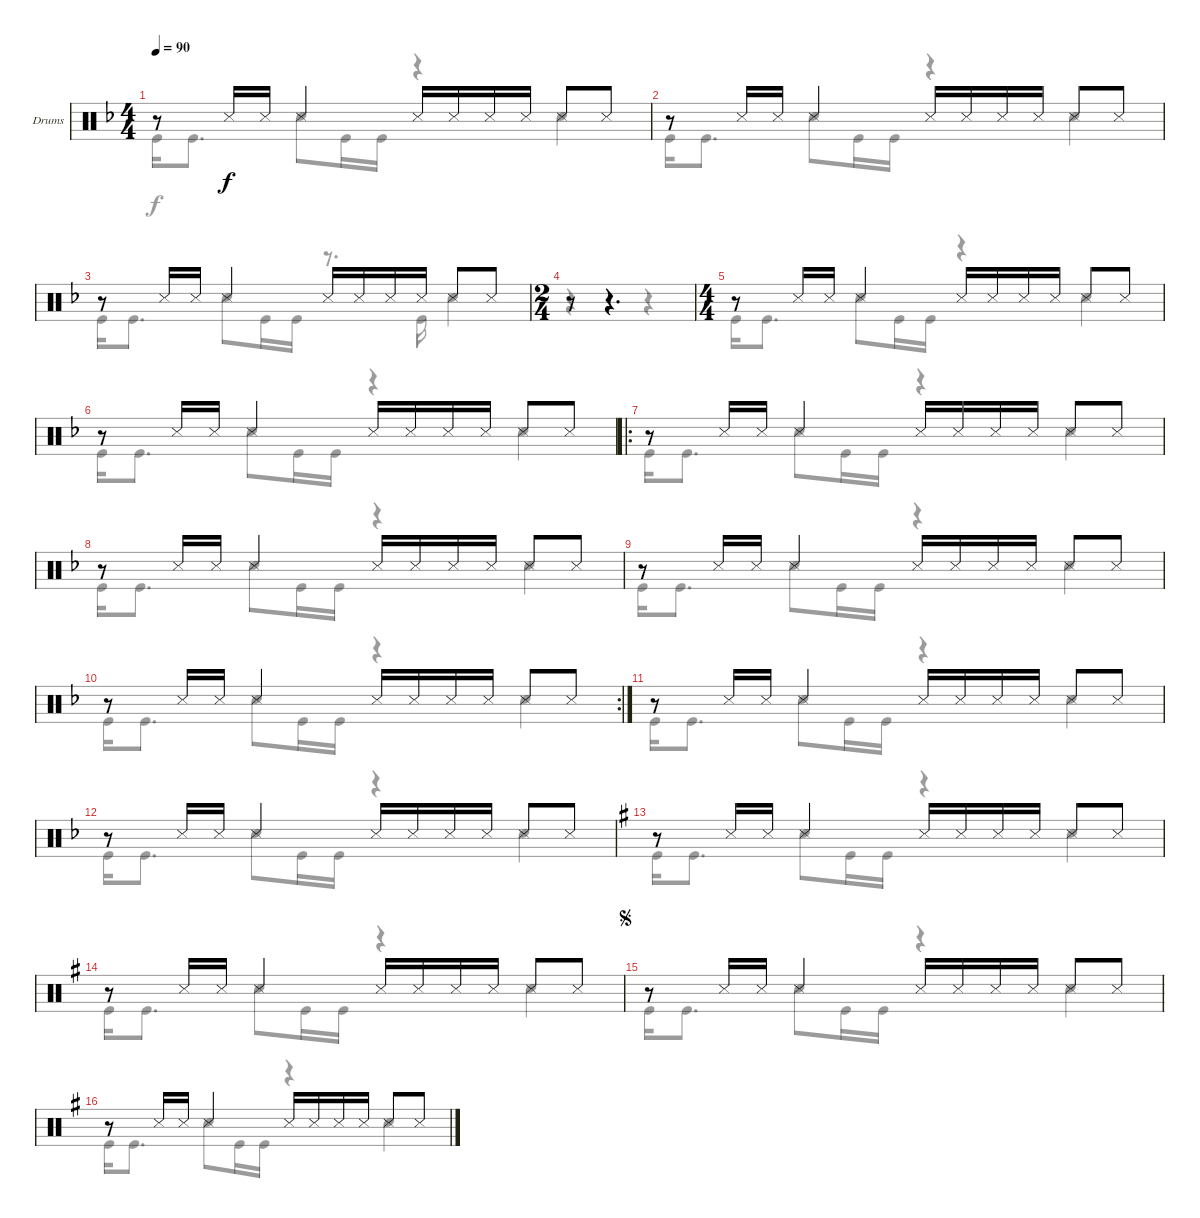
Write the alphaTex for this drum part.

\bracketExtendMode groupsimilarinstruments
\firstSystemTrackNameOrientation horizontal
\otherSystemsTrackNameOrientation horizontal
\track ("Drumkit" "Drums") {instrument percussion}
\staff {score}
\articulation defaults
\voice
\ts (4 4)
\tempo 90
\clef neutral
\ks f
r.8{dy f} "Snare (side stick) 3".16 "Snare (side stick) 3".16 "Snare (side stick) 3".4 "Snare (side stick) 3".16 "Snare (side stick) 3".16 "Snare (side stick) 3".16 "Snare (side stick) 3".16 "Snare (side stick) 3".8 "Snare (side stick) 3".8 |
r.8 "Snare (side stick) 3".16 "Snare (side stick) 3".16 "Snare (side stick) 3".4 "Snare (side stick) 3".16 "Snare (side stick) 3".16 "Snare (side stick) 3".16 "Snare (side stick) 3".16 "Snare (side stick) 3".8 "Snare (side stick) 3".8 |
r.8 "Snare (side stick) 3".16 "Snare (side stick) 3".16 "Snare (side stick) 3".4 "Snare (side stick) 3".16 "Snare (side stick) 3".16 "Snare (side stick) 3".16 "Snare (side stick) 3".16 "Snare (side stick) 3".8 "Snare (side stick) 3".8 |
\ts (2 4)
r.8 r.4{d} |
\ts (4 4)
r.8 "Snare (side stick) 3".16 "Snare (side stick) 3".16 "Snare (side stick) 3".4 "Snare (side stick) 3".16 "Snare (side stick) 3".16 "Snare (side stick) 3".16 "Snare (side stick) 3".16 "Snare (side stick) 3".8 "Snare (side stick) 3".8 |
r.8 "Snare (side stick) 3".16 "Snare (side stick) 3".16 "Snare (side stick) 3".4 "Snare (side stick) 3".16 "Snare (side stick) 3".16 "Snare (side stick) 3".16 "Snare (side stick) 3".16 "Snare (side stick) 3".8 "Snare (side stick) 3".8 |
\ro
r.8 "Snare (side stick) 3".16 "Snare (side stick) 3".16 "Snare (side stick) 3".4 "Snare (side stick) 3".16 "Snare (side stick) 3".16 "Snare (side stick) 3".16 "Snare (side stick) 3".16 "Snare (side stick) 3".8 "Snare (side stick) 3".8 |
r.8 "Snare (side stick) 3".16 "Snare (side stick) 3".16 "Snare (side stick) 3".4 "Snare (side stick) 3".16 "Snare (side stick) 3".16 "Snare (side stick) 3".16 "Snare (side stick) 3".16 "Snare (side stick) 3".8 "Snare (side stick) 3".8 |
r.8 "Snare (side stick) 3".16 "Snare (side stick) 3".16 "Snare (side stick) 3".4 "Snare (side stick) 3".16 "Snare (side stick) 3".16 "Snare (side stick) 3".16 "Snare (side stick) 3".16 "Snare (side stick) 3".8 "Snare (side stick) 3".8 |
\rc 2
r.8 "Snare (side stick) 3".16 "Snare (side stick) 3".16 "Snare (side stick) 3".4 "Snare (side stick) 3".16 "Snare (side stick) 3".16 "Snare (side stick) 3".16 "Snare (side stick) 3".16 "Snare (side stick) 3".8 "Snare (side stick) 3".8 |
r.8 "Snare (side stick) 3".16 "Snare (side stick) 3".16 "Snare (side stick) 3".4 "Snare (side stick) 3".16 "Snare (side stick) 3".16 "Snare (side stick) 3".16 "Snare (side stick) 3".16 "Snare (side stick) 3".8 "Snare (side stick) 3".8 |
r.8 "Snare (side stick) 3".16 "Snare (side stick) 3".16 "Snare (side stick) 3".4 "Snare (side stick) 3".16 "Snare (side stick) 3".16 "Snare (side stick) 3".16 "Snare (side stick) 3".16 "Snare (side stick) 3".8 "Snare (side stick) 3".8 |
\ks g
r.8 "Snare (side stick) 3".16 "Snare (side stick) 3".16 "Snare (side stick) 3".4 "Snare (side stick) 3".16 "Snare (side stick) 3".16 "Snare (side stick) 3".16 "Snare (side stick) 3".16 "Snare (side stick) 3".8 "Snare (side stick) 3".8 |
r.8 "Snare (side stick) 3".16 "Snare (side stick) 3".16 "Snare (side stick) 3".4 "Snare (side stick) 3".16 "Snare (side stick) 3".16 "Snare (side stick) 3".16 "Snare (side stick) 3".16 "Snare (side stick) 3".8 "Snare (side stick) 3".8 |
\jump segno
r.8 "Snare (side stick) 3".16 "Snare (side stick) 3".16 "Snare (side stick) 3".4 "Snare (side stick) 3".16 "Snare (side stick) 3".16 "Snare (side stick) 3".16 "Snare (side stick) 3".16 "Snare (side stick) 3".8 "Snare (side stick) 3".8 |
r.8 "Snare (side stick) 3".16 "Snare (side stick) 3".16 "Snare (side stick) 3".4 "Snare (side stick) 3".16 "Snare (side stick) 3".16 "Snare (side stick) 3".16 "Snare (side stick) 3".16 "Snare (side stick) 3".8 "Snare (side stick) 3".8
\voice
\clef neutral
\ottava regular
\simile none
\ks f "Kick (hit)".16{dy f} "Kick (hit)".8{d} "Snare (hit) 2".8 "Kick (hit)".16 "Kick (hit)".16
r.4 "Snare (hit) 2".4 |
"Kick (hit)".16 "Kick (hit)".8{d} "Snare (hit) 2".8 "Kick (hit)".16 "Kick (hit)".16 r.4 "Snare (hit) 2".4 |
"Kick (hit)".16 "Kick (hit)".8{d} "Snare (hit) 2".8 "Kick (hit)".16 "Kick (hit)".16 r.8{d} "Kick (hit)".16 "Snare (hit) 2".4 |
r.4 r.4 |
"Kick (hit)".16 "Kick (hit)".8{d} "Snare (hit) 2".8 "Kick (hit)".16 "Kick (hit)".16 r.4 "Snare (hit) 2".4 |
"Kick (hit)".16 "Kick (hit)".8{d} "Snare (hit) 2".8 "Kick (hit)".16 "Kick (hit)".16 r.4 "Snare (hit) 2".4 |
"Kick (hit)".16 "Kick (hit)".8{d} "Snare (hit) 2".8 "Kick (hit)".16 "Kick (hit)".16 r.4 "Snare (hit) 2".4 |
"Kick (hit)".16 "Kick (hit)".8{d} "Snare (hit) 2".8 "Kick (hit)".16 "Kick (hit)".16 r.4 "Snare (hit) 2".4 |
"Kick (hit)".16 "Kick (hit)".8{d} "Snare (hit) 2".8 "Kick (hit)".16 "Kick (hit)".16 r.4 "Snare (hit) 2".4 |
"Kick (hit)".16 "Kick (hit)".8{d} "Snare (hit) 2".8 "Kick (hit)".16 "Kick (hit)".16 r.4 "Snare (hit) 2".4 |
"Kick (hit)".16 "Kick (hit)".8{d} "Snare (hit) 2".8 "Kick (hit)".16 "Kick (hit)".16 r.4 "Snare (hit) 2".4 |
"Kick (hit)".16 "Kick (hit)".8{d} "Snare (hit) 2".8 "Kick (hit)".16 "Kick (hit)".16 r.4 "Snare (hit) 2".4 |
\ks g "Kick (hit)".16 "Kick (hit)".8{d} "Snare (hit) 2".8 "Kick (hit)".16 "Kick (hit)".16
r.4 "Snare (hit) 2".4 |
"Kick (hit)".16 "Kick (hit)".8{d} "Snare (hit) 2".8 "Kick (hit)".16 "Kick (hit)".16 r.4 "Snare (hit) 2".4 |
"Kick (hit)".16 "Kick (hit)".8{d} "Snare (hit) 2".8 "Kick (hit)".16 "Kick (hit)".16 r.4 "Snare (hit) 2".4 |
"Kick (hit)".16 "Kick (hit)".8{d} "Snare (hit) 2".8 "Kick (hit)".16 "Kick (hit)".16 r.4 "Snare (hit) 2".4
